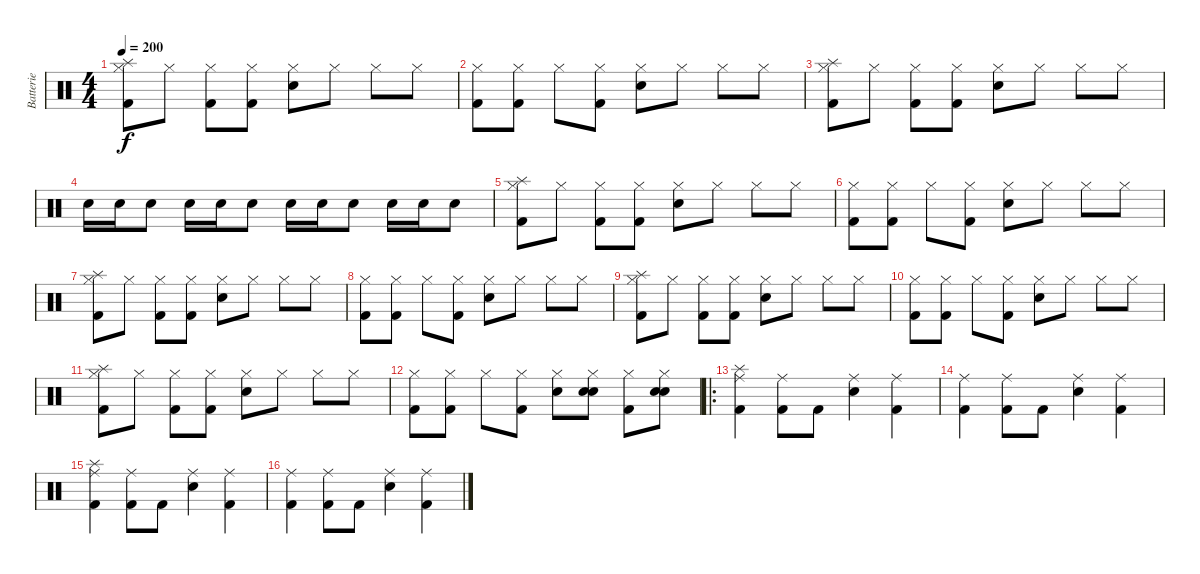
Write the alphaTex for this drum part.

\track ("Batterie" "Batterie") {instrument percussion}
\staff {score}
\articulation defaults
\ts (4 4)
\tempo 200
\clef neutral
\ks c
("Splash (hit)" "Hi-Hat (closed)" "Kick (hit) 2").8{dy f} "Hi-Hat (closed)".8 ("Hi-Hat (closed)" "Kick (hit) 2").8 ("Hi-Hat (closed)" "Kick (hit) 2").8 ("Hi-Hat (closed)" "Snare (hit) 2").8 "Hi-Hat (closed)".8 "Hi-Hat (closed)".8 "Hi-Hat (closed)".8 |
("Hi-Hat (closed)" "Kick (hit) 2").8 ("Hi-Hat (closed)" "Kick (hit) 2").8 "Hi-Hat (closed)".8 ("Hi-Hat (closed)" "Kick (hit) 2").8 ("Hi-Hat (closed)" "Snare (hit) 2").8 "Hi-Hat (closed)".8 "Hi-Hat (closed)".8 "Hi-Hat (closed)".8 |
("Splash (hit)" "Hi-Hat (closed)" "Kick (hit) 2").8 "Hi-Hat (closed)".8 ("Hi-Hat (closed)" "Kick (hit) 2").8 ("Hi-Hat (closed)" "Kick (hit) 2").8 ("Hi-Hat (closed)" "Snare (hit) 2").8 "Hi-Hat (closed)".8 "Hi-Hat (closed)".8 "Hi-Hat (closed)".8 |
"Snare (hit) 2".16 "Snare (hit) 2".16 "Snare (hit) 2".8 "Snare (hit) 2".16 "Snare (hit) 2".16 "Snare (hit) 2".8 "Snare (hit) 2".16 "Snare (hit) 2".16 "Snare (hit) 2".8 "Snare (hit) 2".16 "Snare (hit) 2".16 "Snare (hit) 2".8 |
("Splash (hit)" "Hi-Hat (closed)" "Kick (hit) 2").8 "Hi-Hat (closed)".8 ("Hi-Hat (closed)" "Kick (hit) 2").8 ("Hi-Hat (closed)" "Kick (hit) 2").8 ("Hi-Hat (closed)" "Snare (hit) 2").8 "Hi-Hat (closed)".8 "Hi-Hat (closed)".8 "Hi-Hat (closed)".8 |
("Hi-Hat (closed)" "Kick (hit) 2").8 ("Hi-Hat (closed)" "Kick (hit) 2").8 "Hi-Hat (closed)".8 ("Hi-Hat (closed)" "Kick (hit) 2").8 ("Hi-Hat (closed)" "Snare (hit) 2").8 "Hi-Hat (closed)".8 "Hi-Hat (closed)".8 "Hi-Hat (closed)".8 |
("Splash (hit)" "Hi-Hat (closed)" "Kick (hit) 2").8 "Hi-Hat (closed)".8 ("Hi-Hat (closed)" "Kick (hit) 2").8 ("Hi-Hat (closed)" "Kick (hit) 2").8 ("Hi-Hat (closed)" "Snare (hit) 2").8 "Hi-Hat (closed)".8 "Hi-Hat (closed)".8 "Hi-Hat (closed)".8 |
("Hi-Hat (closed)" "Kick (hit) 2").8 ("Hi-Hat (closed)" "Kick (hit) 2").8 "Hi-Hat (closed)".8 ("Hi-Hat (closed)" "Kick (hit) 2").8 ("Hi-Hat (closed)" "Snare (hit) 2").8 "Hi-Hat (closed)".8 "Hi-Hat (closed)".8 "Hi-Hat (closed)".8 |
("Splash (hit)" "Hi-Hat (closed)" "Kick (hit) 2").8 "Hi-Hat (closed)".8 ("Hi-Hat (closed)" "Kick (hit) 2").8 ("Hi-Hat (closed)" "Kick (hit) 2").8 ("Hi-Hat (closed)" "Snare (hit) 2").8 "Hi-Hat (closed)".8 "Hi-Hat (closed)".8 "Hi-Hat (closed)".8 |
("Hi-Hat (closed)" "Kick (hit) 2").8 ("Hi-Hat (closed)" "Kick (hit) 2").8 "Hi-Hat (closed)".8 ("Hi-Hat (closed)" "Kick (hit) 2").8 ("Hi-Hat (closed)" "Snare (hit) 2").8 "Hi-Hat (closed)".8 "Hi-Hat (closed)".8 "Hi-Hat (closed)".8 |
("Splash (hit)" "Hi-Hat (closed)" "Kick (hit) 2").8 "Hi-Hat (closed)".8 ("Hi-Hat (closed)" "Kick (hit) 2").8 ("Hi-Hat (closed)" "Kick (hit) 2").8 ("Hi-Hat (closed)" "Snare (hit) 2").8 "Hi-Hat (closed)".8 "Hi-Hat (closed)".8 "Hi-Hat (closed)".8 |
("Hi-Hat (closed)" "Kick (hit) 2").8 ("Hi-Hat (closed)" "Kick (hit) 2").8 "Hi-Hat (closed)".8 ("Hi-Hat (closed)" "Kick (hit) 2").8 ("Hi-Hat (closed)" "Snare (hit) 2").8 ("Hi-Hat (closed)" "Snare (hit) 2" "Snare (hit) 2").8 ("Hi-Hat (closed)" "Kick (hit) 2").8 ("Hi-Hat (closed)" "Snare (hit) 2" "Snare (hit) 2").8 |
\ro
("Splash (hit)" "Ride (middle)" "Kick (hit) 2").4 ("Ride (middle)" "Kick (hit) 2").8 "Kick (hit) 2".8 ("Ride (middle)" "Snare (hit) 2").4 ("Ride (middle)" "Kick (hit) 2").4 |
("Ride (middle)" "Kick (hit) 2").4 ("Ride (middle)" "Kick (hit) 2").8 "Kick (hit) 2".8 ("Ride (middle)" "Snare (hit) 2").4 ("Ride (middle)" "Kick (hit) 2").4 |
("Splash (hit)" "Ride (middle)" "Kick (hit) 2").4 ("Ride (middle)" "Kick (hit) 2").8 "Kick (hit) 2".8 ("Ride (middle)" "Snare (hit) 2").4 ("Ride (middle)" "Kick (hit) 2").4 |
("Ride (middle)" "Kick (hit) 2").4 ("Ride (middle)" "Kick (hit) 2").8 "Kick (hit) 2".8 ("Ride (middle)" "Snare (hit) 2").4 ("Ride (middle)" "Kick (hit) 2").4
